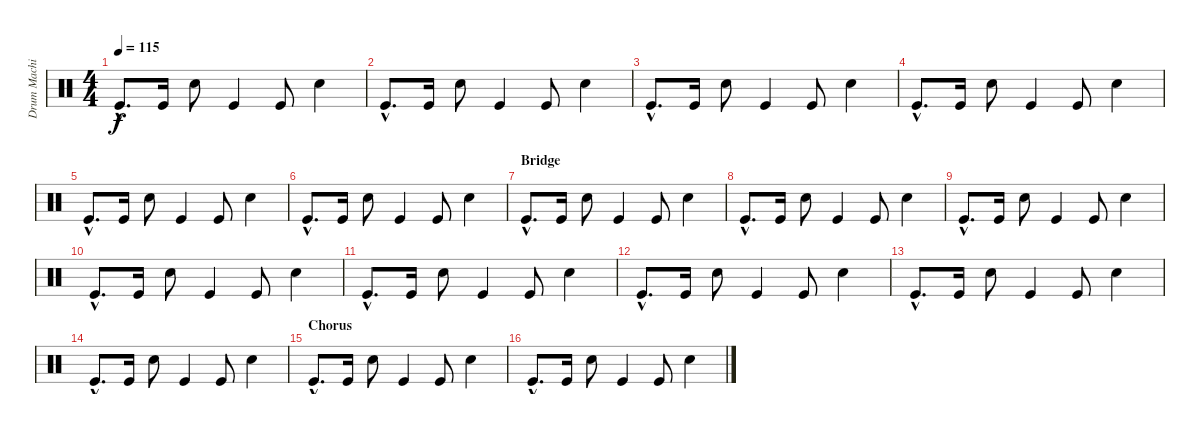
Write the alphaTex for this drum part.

\track ("Drum Machine" "Drum Machi") {instrument percussion}
\staff {score}
\articulation defaults
\ts (4 4)
\tempo 115
\clef neutral
\ks c "Kick (hit)"{hac}.8{d dy f} "Kick (hit)".16 "Snare (hit) 2".8 "Kick (hit)".4 "Kick (hit)".8 "Snare (hit) 2".4
|
"Kick (hit)"{hac}.8{d} "Kick (hit)".16 "Snare (hit) 2".8 "Kick (hit)".4 "Kick (hit)".8 "Snare (hit) 2".4 |
"Kick (hit)"{hac}.8{d} "Kick (hit)".16 "Snare (hit) 2".8 "Kick (hit)".4 "Kick (hit)".8 "Snare (hit) 2".4 |
"Kick (hit)"{hac}.8{d} "Kick (hit)".16 "Snare (hit) 2".8 "Kick (hit)".4 "Kick (hit)".8 "Snare (hit) 2".4 |
"Kick (hit)"{hac}.8{d} "Kick (hit)".16 "Snare (hit) 2".8 "Kick (hit)".4 "Kick (hit)".8 "Snare (hit) 2".4 |
"Kick (hit)"{hac}.8{d} "Kick (hit)".16 "Snare (hit) 2".8 "Kick (hit)".4 "Kick (hit)".8 "Snare (hit) 2".4 |
\section ("" "Bridge")
"Kick (hit)"{hac}.8{d} "Kick (hit)".16 "Snare (hit) 2".8 "Kick (hit)".4 "Kick (hit)".8 "Snare (hit) 2".4 |
"Kick (hit)"{hac}.8{d} "Kick (hit)".16 "Snare (hit) 2".8 "Kick (hit)".4 "Kick (hit)".8 "Snare (hit) 2".4 |
"Kick (hit)"{hac}.8{d} "Kick (hit)".16 "Snare (hit) 2".8 "Kick (hit)".4 "Kick (hit)".8 "Snare (hit) 2".4 |
"Kick (hit)"{hac}.8{d} "Kick (hit)".16 "Snare (hit) 2".8 "Kick (hit)".4 "Kick (hit)".8 "Snare (hit) 2".4 |
"Kick (hit)"{hac}.8{d} "Kick (hit)".16 "Snare (hit) 2".8 "Kick (hit)".4 "Kick (hit)".8 "Snare (hit) 2".4 |
"Kick (hit)"{hac}.8{d} "Kick (hit)".16 "Snare (hit) 2".8 "Kick (hit)".4 "Kick (hit)".8 "Snare (hit) 2".4 |
"Kick (hit)"{hac}.8{d} "Kick (hit)".16 "Snare (hit) 2".8 "Kick (hit)".4 "Kick (hit)".8 "Snare (hit) 2".4 |
"Kick (hit)"{hac}.8{d} "Kick (hit)".16 "Snare (hit) 2".8 "Kick (hit)".4 "Kick (hit)".8 "Snare (hit) 2".4 |
\section ("" "Chorus")
"Kick (hit)"{hac}.8{d} "Kick (hit)".16 "Snare (hit) 2".8 "Kick (hit)".4 "Kick (hit)".8 "Snare (hit) 2".4 |
"Kick (hit)"{hac}.8{d} "Kick (hit)".16 "Snare (hit) 2".8 "Kick (hit)".4 "Kick (hit)".8 "Snare (hit) 2".4
